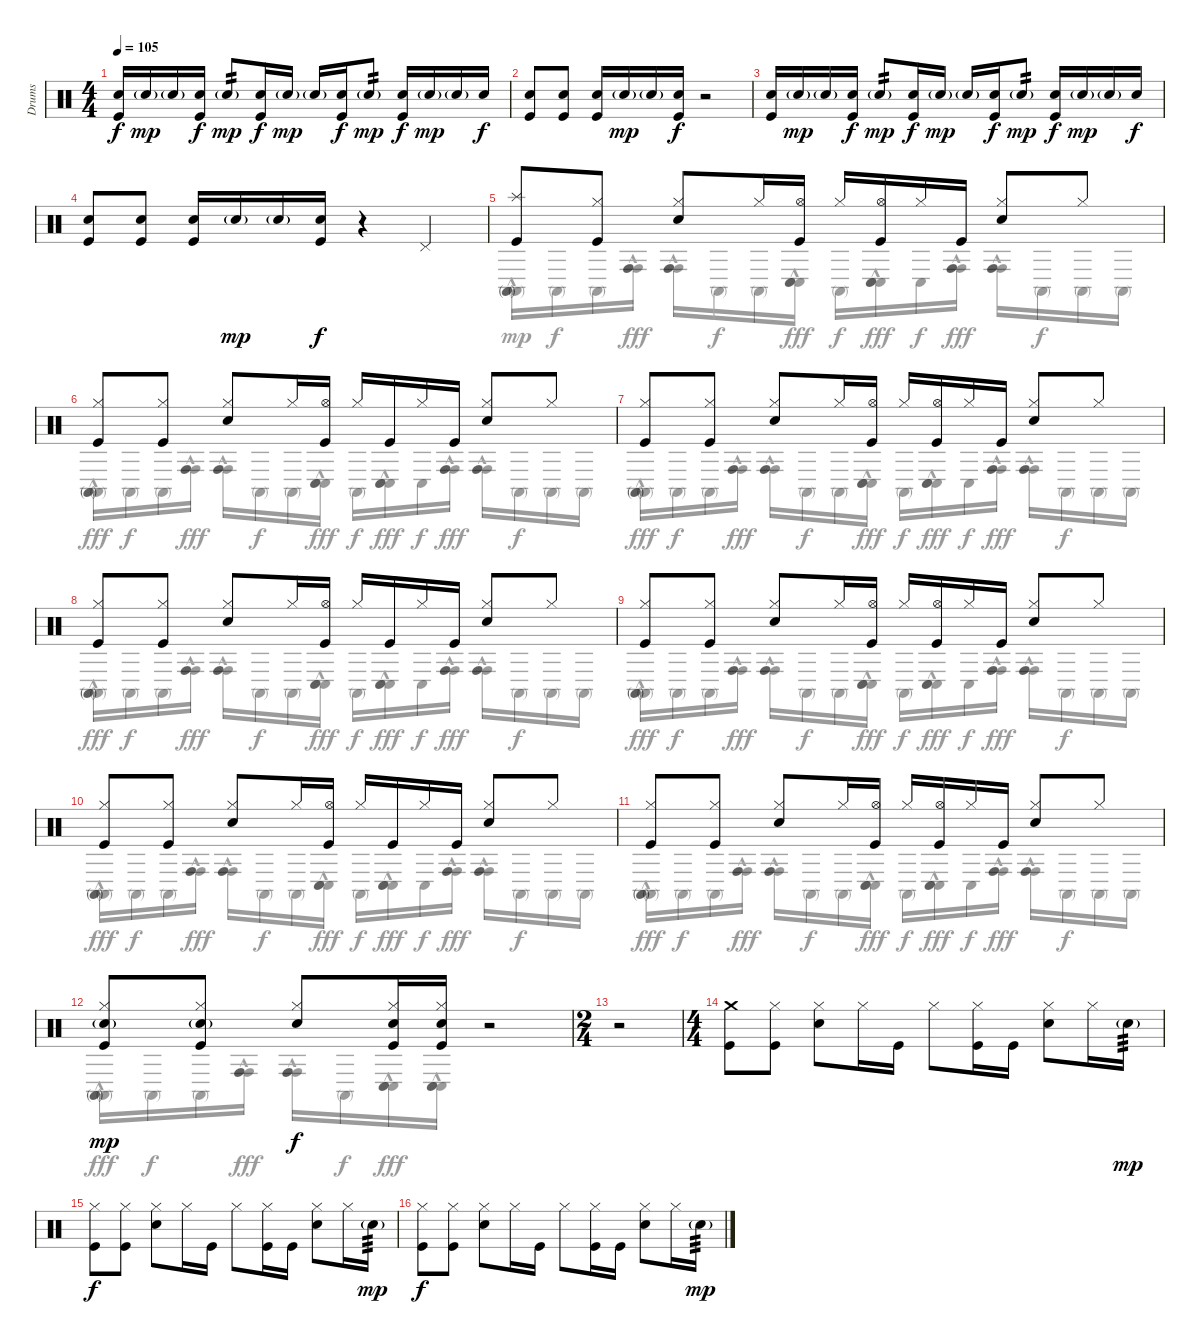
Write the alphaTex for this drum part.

\track ("Drums" "Drums") {instrument percussion}
\staff {score}
\articulation defaults
\voice
\ts (4 4)
\tempo 105
\clef neutral
\ks c
("Electric Snare (hit)" "Kick (hit)").16{dy f} "Electric Snare (hit)"{g}.16{dy mp} "Electric Snare (hit)"{g}.16 ("Electric Snare (hit)" "Kick (hit)").16{dy f} "Electric Snare (hit)"{g}.8{tp 2 dy mp} ("Electric Snare (hit)" "Kick (hit)").16{dy f} "Electric Snare (hit)"{g}.16{dy mp} "Electric Snare (hit)"{g}.16 ("Electric Snare (hit)" "Kick (hit)").16{dy f} "Electric Snare (hit)"{g}.8{tp 2 dy mp} ("Electric Snare (hit)" "Kick (hit)").16{dy f} "Electric Snare (hit)"{g}.16{dy mp} "Electric Snare (hit)"{g}.16 "Electric Snare (hit)".16{dy f} |
("Electric Snare (hit)" "Kick (hit)").8 ("Electric Snare (hit)" "Kick (hit)").8 ("Electric Snare (hit)" "Kick (hit)").16 "Electric Snare (hit)"{g}.16{dy mp} "Electric Snare (hit)"{g}.16 ("Electric Snare (hit)" "Kick (hit)").16{dy f} r.2 |
("Electric Snare (hit)" "Kick (hit)").16 "Electric Snare (hit)"{g}.16{dy mp} "Electric Snare (hit)"{g}.16 ("Electric Snare (hit)" "Kick (hit)").16{dy f} "Electric Snare (hit)"{g}.8{tp 2 dy mp} ("Electric Snare (hit)" "Kick (hit)").16{dy f} "Electric Snare (hit)"{g}.16{dy mp} "Electric Snare (hit)"{g}.16 ("Electric Snare (hit)" "Kick (hit)").16{dy f} "Electric Snare (hit)"{g}.8{tp 2 dy mp} ("Electric Snare (hit)" "Kick (hit)").16{dy f} "Electric Snare (hit)"{g}.16{dy mp} "Electric Snare (hit)"{g}.16 "Electric Snare (hit)".16{dy f} |
("Electric Snare (hit)" "Kick (hit)").8 ("Electric Snare (hit)" "Kick (hit)").8 ("Electric Snare (hit)" "Kick (hit)").16 "Electric Snare (hit)"{g}.16{dy mp} "Electric Snare (hit)"{g}.16 ("Electric Snare (hit)" "Kick (hit)").16{dy f} r.4 "Pedal Hi-Hat (hit)".4 |
("Splash (hit)" "Kick (hit)").8 ("Hi-Hat (closed)" "Kick (hit)").8 ("Hi-Hat (closed)" "Electric Snare (hit)").8 "Hi-Hat (closed)".16 ("Hi-Hat (open)" "Kick (hit)").16 "Hi-Hat (closed)".16 ("Hi-Hat (open)" "Kick (hit)").16 "Hi-Hat (closed)".16 "Kick (hit)".16 ("Hi-Hat (closed)" "Electric Snare (hit)").8 "Hi-Hat (closed)".8 |
("Hi-Hat (closed)" "Kick (hit)").8 ("Hi-Hat (closed)" "Kick (hit)").8 ("Hi-Hat (closed)" "Electric Snare (hit)").8 "Hi-Hat (closed)".16 ("Hi-Hat (open)" "Kick (hit)").16 "Hi-Hat (closed)".16 "Kick (hit)".16 "Hi-Hat (closed)".16 "Kick (hit)".16 ("Hi-Hat (closed)" "Electric Snare (hit)").8 "Hi-Hat (closed)".8 |
("Hi-Hat (closed)" "Kick (hit)").8 ("Hi-Hat (closed)" "Kick (hit)").8 ("Hi-Hat (closed)" "Electric Snare (hit)").8 "Hi-Hat (closed)".16 ("Hi-Hat (open)" "Kick (hit)").16 "Hi-Hat (closed)".16 ("Hi-Hat (open)" "Kick (hit)").16 "Hi-Hat (closed)".16 "Kick (hit)".16 ("Hi-Hat (closed)" "Electric Snare (hit)").8 "Hi-Hat (closed)".8 |
("Hi-Hat (closed)" "Kick (hit)").8 ("Hi-Hat (closed)" "Kick (hit)").8 ("Hi-Hat (closed)" "Electric Snare (hit)").8 "Hi-Hat (closed)".16 ("Hi-Hat (open)" "Kick (hit)").16 "Hi-Hat (closed)".16 "Kick (hit)".16 "Hi-Hat (closed)".16 "Kick (hit)".16 ("Hi-Hat (closed)" "Electric Snare (hit)").8 "Hi-Hat (closed)".8 |
("Hi-Hat (closed)" "Kick (hit)").8 ("Hi-Hat (closed)" "Kick (hit)").8 ("Hi-Hat (closed)" "Electric Snare (hit)").8 "Hi-Hat (closed)".16 ("Hi-Hat (open)" "Kick (hit)").16 "Hi-Hat (closed)".16 ("Hi-Hat (open)" "Kick (hit)").16 "Hi-Hat (closed)".16 "Kick (hit)".16 ("Hi-Hat (closed)" "Electric Snare (hit)").8 "Hi-Hat (closed)".8 |
("Hi-Hat (closed)" "Kick (hit)").8 ("Hi-Hat (closed)" "Kick (hit)").8 ("Hi-Hat (closed)" "Electric Snare (hit)").8 "Hi-Hat (closed)".16 ("Hi-Hat (open)" "Kick (hit)").16 "Hi-Hat (closed)".16 "Kick (hit)".16 "Hi-Hat (closed)".16 "Kick (hit)".16 ("Hi-Hat (closed)" "Electric Snare (hit)").8 "Hi-Hat (closed)".8 |
("Hi-Hat (closed)" "Kick (hit)").8 ("Hi-Hat (closed)" "Kick (hit)").8 ("Hi-Hat (closed)" "Electric Snare (hit)").8 "Hi-Hat (closed)".16 ("Hi-Hat (open)" "Kick (hit)").16 "Hi-Hat (closed)".16 ("Hi-Hat (open)" "Kick (hit)").16 "Hi-Hat (closed)".16 "Kick (hit)".16 ("Hi-Hat (closed)" "Electric Snare (hit)").8 "Hi-Hat (closed)".8 |
("Hi-Hat (closed)" "Electric Snare (hit)"{g} "Kick (hit)").8{dy mp} ("Hi-Hat (closed)" "Electric Snare (hit)"{g} "Kick (hit)").8 ("Hi-Hat (closed)" "Electric Snare (hit)").8{dy f} ("Hi-Hat (closed)" "Electric Snare (hit)" "Kick (hit)").16 ("Hi-Hat (closed)" "Electric Snare (hit)" "Kick (hit)").16 r.2 |
\ts (2 4)
r.2 |
\ts (4 4)
("Crash medium (hit)" "Kick (hit)").8 ("Hi-Hat (closed)" "Kick (hit)").8 ("Hi-Hat (closed)" "Electric Snare (hit)").8 "Hi-Hat (closed)".16 "Kick (hit)".16 "Hi-Hat (closed)".8 ("Hi-Hat (closed)" "Kick (hit)").16 "Kick (hit)".16 ("Hi-Hat (closed)" "Electric Snare (hit)").8 "Hi-Hat (closed)".16 "Electric Snare (hit)"{g}.16{tp 3 dy mp} |
("Hi-Hat (closed)" "Kick (hit)").8{dy f} ("Hi-Hat (closed)" "Kick (hit)").8 ("Hi-Hat (closed)" "Electric Snare (hit)").8 "Hi-Hat (closed)".16 "Kick (hit)".16 "Hi-Hat (closed)".8 ("Hi-Hat (closed)" "Kick (hit)").16 "Kick (hit)".16 ("Hi-Hat (closed)" "Electric Snare (hit)").8 "Hi-Hat (closed)".16 "Electric Snare (hit)"{g}.16{tp 3 dy mp} |
("Hi-Hat (closed)" "Kick (hit)").8{dy f} ("Hi-Hat (closed)" "Kick (hit)").8 ("Hi-Hat (closed)" "Electric Snare (hit)").8 "Hi-Hat (closed)".16 "Kick (hit)".16 "Hi-Hat (closed)".8 ("Hi-Hat (closed)" "Kick (hit)").16 "Kick (hit)".16 ("Hi-Hat (closed)" "Electric Snare (hit)").8 "Hi-Hat (closed)".16 "Electric Snare (hit)"{g}.16{tp 3 dy mp}
\voice
\clef neutral
\ottava regular
\simile none
\ks c
|
|
|
|
("Conga high (mute)"{hac} "Conga high (mute)"{hac} "Conga high (mute)"{hac}).16 "Conga high (mute)".16{dy f} "Conga high (mute)".16 ("Conga high (hit)"{hac} "Conga high (hit)"{hac} "Conga high (hit)"{hac}).16{dy fff} ("Conga high (hit)"{hac} "Conga high (hit)"{hac} "Conga high (hit)"{hac}).16 "Conga high (mute)".16{dy f} "Conga high (mute)".16 ("Conga low (hit)"{hac} "Conga low (hit)"{hac} "Conga low (hit)"{hac}).16{dy fff} "Conga high (mute)".16{dy f} ("Conga low (hit)"{hac} "Conga low (hit)"{hac} "Conga low (hit)"{hac}).16{dy fff} "Conga low (hit)".16{dy f} ("Conga high (hit)"{hac} "Conga high (hit)"{hac} "Conga high (hit)"{hac}).16{dy fff} ("Conga high (hit)"{hac} "Conga high (hit)"{hac} "Conga high (hit)"{hac}).16 "Conga high (mute)".16{dy f} "Conga high (mute)".16 "Conga high (mute)".16 |
("Conga high (mute)"{hac} "Conga high (mute)"{hac} "Conga high (mute)"{hac}).16{dy fff} "Conga high (mute)".16{dy f} "Conga high (mute)".16 ("Conga high (hit)"{hac} "Conga high (hit)"{hac} "Conga high (hit)"{hac}).16{dy fff} ("Conga high (hit)"{hac} "Conga high (hit)"{hac} "Conga high (hit)"{hac}).16 "Conga high (mute)".16{dy f} "Conga high (mute)".16 ("Conga low (hit)"{hac} "Conga low (hit)"{hac} "Conga low (hit)"{hac}).16{dy fff} "Conga high (mute)".16{dy f} ("Conga low (hit)"{hac} "Conga low (hit)"{hac} "Conga low (hit)"{hac}).16{dy fff} "Conga low (hit)".16{dy f} ("Conga high (hit)"{hac} "Conga high (hit)"{hac} "Conga high (hit)"{hac}).16{dy fff} ("Conga high (hit)"{hac} "Conga high (hit)"{hac} "Conga high (hit)"{hac}).16 "Conga high (mute)".16{dy f} "Conga high (mute)".16 "Conga high (mute)".16 |
("Conga high (mute)"{hac} "Conga high (mute)"{hac} "Conga high (mute)"{hac}).16{dy fff} "Conga high (mute)".16{dy f} "Conga high (mute)".16 ("Conga high (hit)"{hac} "Conga high (hit)"{hac} "Conga high (hit)"{hac}).16{dy fff} ("Conga high (hit)"{hac} "Conga high (hit)"{hac} "Conga high (hit)"{hac}).16 "Conga high (mute)".16{dy f} "Conga high (mute)".16 ("Conga low (hit)"{hac} "Conga low (hit)"{hac} "Conga low (hit)"{hac}).16{dy fff} "Conga high (mute)".16{dy f} ("Conga low (hit)"{hac} "Conga low (hit)"{hac} "Conga low (hit)"{hac}).16{dy fff} "Conga low (hit)".16{dy f} ("Conga high (hit)"{hac} "Conga high (hit)"{hac} "Conga high (hit)"{hac}).16{dy fff} ("Conga high (hit)"{hac} "Conga high (hit)"{hac} "Conga high (hit)"{hac}).16 "Conga high (mute)".16{dy f} "Conga high (mute)".16 "Conga high (mute)".16 |
("Conga high (mute)"{hac} "Conga high (mute)"{hac} "Conga high (mute)"{hac}).16{dy fff} "Conga high (mute)".16{dy f} "Conga high (mute)".16 ("Conga high (hit)"{hac} "Conga high (hit)"{hac} "Conga high (hit)"{hac}).16{dy fff} ("Conga high (hit)"{hac} "Conga high (hit)"{hac} "Conga high (hit)"{hac}).16 "Conga high (mute)".16{dy f} "Conga high (mute)".16 ("Conga low (hit)"{hac} "Conga low (hit)"{hac} "Conga low (hit)"{hac}).16{dy fff} "Conga high (mute)".16{dy f} ("Conga low (hit)"{hac} "Conga low (hit)"{hac} "Conga low (hit)"{hac}).16{dy fff} "Conga low (hit)".16{dy f} ("Conga high (hit)"{hac} "Conga high (hit)"{hac} "Conga high (hit)"{hac}).16{dy fff} ("Conga high (hit)"{hac} "Conga high (hit)"{hac} "Conga high (hit)"{hac}).16 "Conga high (mute)".16{dy f} "Conga high (mute)".16 "Conga high (mute)".16 |
("Conga high (mute)"{hac} "Conga high (mute)"{hac} "Conga high (mute)"{hac}).16{dy fff} "Conga high (mute)".16{dy f} "Conga high (mute)".16 ("Conga high (hit)"{hac} "Conga high (hit)"{hac} "Conga high (hit)"{hac}).16{dy fff} ("Conga high (hit)"{hac} "Conga high (hit)"{hac} "Conga high (hit)"{hac}).16 "Conga high (mute)".16{dy f} "Conga high (mute)".16 ("Conga low (hit)"{hac} "Conga low (hit)"{hac} "Conga low (hit)"{hac}).16{dy fff} "Conga high (mute)".16{dy f} ("Conga low (hit)"{hac} "Conga low (hit)"{hac} "Conga low (hit)"{hac}).16{dy fff} "Conga low (hit)".16{dy f} ("Conga high (hit)"{hac} "Conga high (hit)"{hac} "Conga high (hit)"{hac}).16{dy fff} ("Conga high (hit)"{hac} "Conga high (hit)"{hac} "Conga high (hit)"{hac}).16 "Conga high (mute)".16{dy f} "Conga high (mute)".16 "Conga high (mute)".16 |
("Conga high (mute)"{hac} "Conga high (mute)"{hac} "Conga high (mute)"{hac}).16{dy fff} "Conga high (mute)".16{dy f} "Conga high (mute)".16 ("Conga high (hit)"{hac} "Conga high (hit)"{hac} "Conga high (hit)"{hac}).16{dy fff} ("Conga high (hit)"{hac} "Conga high (hit)"{hac} "Conga high (hit)"{hac}).16 "Conga high (mute)".16{dy f} "Conga high (mute)".16 ("Conga low (hit)"{hac} "Conga low (hit)"{hac} "Conga low (hit)"{hac}).16{dy fff} "Conga high (mute)".16{dy f} ("Conga low (hit)"{hac} "Conga low (hit)"{hac} "Conga low (hit)"{hac}).16{dy fff} "Conga low (hit)".16{dy f} ("Conga high (hit)"{hac} "Conga high (hit)"{hac} "Conga high (hit)"{hac}).16{dy fff} ("Conga high (hit)"{hac} "Conga high (hit)"{hac} "Conga high (hit)"{hac}).16 "Conga high (mute)".16{dy f} "Conga high (mute)".16 "Conga high (mute)".16 |
("Conga high (mute)"{hac} "Conga high (mute)"{hac} "Conga high (mute)"{hac}).16{dy fff} "Conga high (mute)".16{dy f} "Conga high (mute)".16 ("Conga high (hit)"{hac} "Conga high (hit)"{hac} "Conga high (hit)"{hac}).16{dy fff} ("Conga high (hit)"{hac} "Conga high (hit)"{hac} "Conga high (hit)"{hac}).16 "Conga high (mute)".16{dy f} "Conga high (mute)".16 ("Conga low (hit)"{hac} "Conga low (hit)"{hac} "Conga low (hit)"{hac}).16{dy fff} "Conga high (mute)".16{dy f} ("Conga low (hit)"{hac} "Conga low (hit)"{hac} "Conga low (hit)"{hac}).16{dy fff} "Conga low (hit)".16{dy f} ("Conga high (hit)"{hac} "Conga high (hit)"{hac} "Conga high (hit)"{hac}).16{dy fff} ("Conga high (hit)"{hac} "Conga high (hit)"{hac} "Conga high (hit)"{hac}).16 "Conga high (mute)".16{dy f} "Conga high (mute)".16 "Conga high (mute)".16 |
("Conga high (mute)"{hac} "Conga high (mute)"{hac} "Conga high (mute)"{hac}).16{dy fff} "Conga high (mute)".16{dy f} "Conga high (mute)".16 ("Conga high (hit)"{hac} "Conga high (hit)"{hac} "Conga high (hit)"{hac}).16{dy fff} ("Conga high (hit)"{hac} "Conga high (hit)"{hac} "Conga high (hit)"{hac}).16 "Conga high (mute)".16{dy f} ("Conga low (hit)"{hac} "Conga low (hit)"{hac} "Conga low (hit)"{hac}).16{dy fff} ("Conga low (hit)"{hac} "Conga low (hit)"{hac} "Conga low (hit)"{hac}).16 r.2 |
|
|
|
